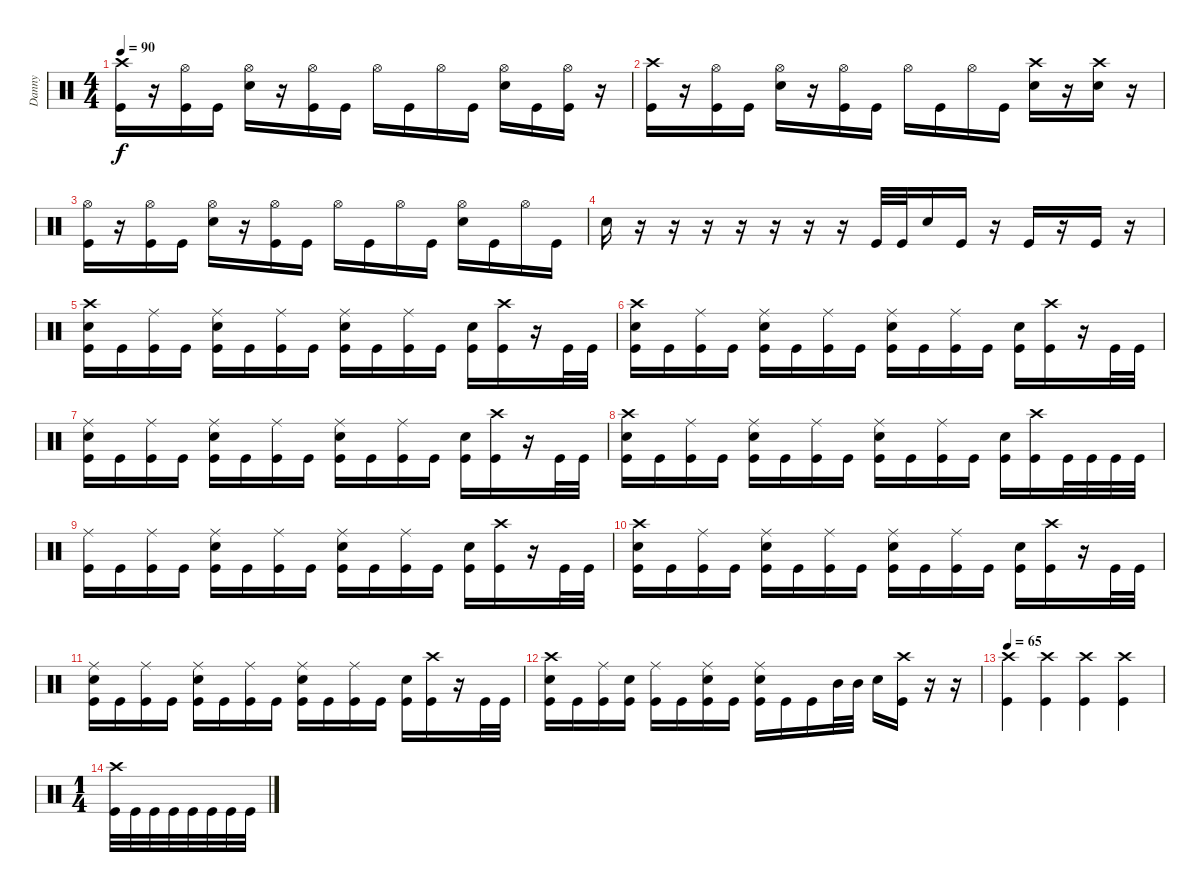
\track ("Danny" "Danny") {instrument percussion}
\staff {score}
\articulation defaults
\ts (4 4)
\tempo 90
\clef neutral
\ks c
("Crash high (hit)" "Kick (hit)").16{dy f} r.16 ("Hi-Hat (open)" "Kick (hit)").16 "Kick (hit)".16 ("Hi-Hat (open)" "Electric Snare (hit)").16 r.16 ("Hi-Hat (open)" "Kick (hit)").16 "Kick (hit)".16 "Hi-Hat (open)".16 "Kick (hit)".16 "Hi-Hat (open)".16 "Kick (hit)".16 ("Hi-Hat (open)" "Electric Snare (hit)").16 "Kick (hit)".16 ("Hi-Hat (open)" "Kick (hit)").16 r.16 |
("Crash high (hit)" "Kick (hit)").16 r.16 ("Hi-Hat (open)" "Kick (hit)").16 "Kick (hit)".16 ("Hi-Hat (open)" "Electric Snare (hit)").16 r.16 ("Hi-Hat (open)" "Kick (hit)").16 "Kick (hit)".16 "Hi-Hat (open)".16 "Kick (hit)".16 "Hi-Hat (open)".16 "Kick (hit)".16 ("Crash high (hit)" "Electric Snare (hit)").16 r.16 ("Crash high (hit)" "Electric Snare (hit)").16 r.16 |
("Hi-Hat (open)" "Kick (hit)").16 r.16 ("Hi-Hat (open)" "Kick (hit)").16 "Kick (hit)".16 ("Hi-Hat (open)" "Electric Snare (hit)").16 r.16 ("Hi-Hat (open)" "Kick (hit)").16 "Kick (hit)".16 "Hi-Hat (open)".16 "Kick (hit)".16 "Hi-Hat (open)".16 "Kick (hit)".16 ("Hi-Hat (open)" "Electric Snare (hit)").16 "Kick (hit)".16 "Hi-Hat (open)".16 "Kick (hit)".16 |
"Electric Snare (hit)".16 r.16 r.16 r.16 r.16 r.16 r.16 r.16 "Kick (hit)".32 "Kick (hit)".32 "Electric Snare (hit)".16 "Kick (hit)".16 r.16 "Kick (hit)".16 r.16 "Kick (hit)".16 r.16 |
("Crash high (hit)" "Electric Snare (hit)" "Kick (hit)").16 "Kick (hit)".16 ("Ride (middle)" "Kick (hit)").16 "Kick (hit)".16 ("Ride (middle)" "Electric Snare (hit)" "Kick (hit)").16 "Kick (hit)".16 ("Ride (middle)" "Kick (hit)").16 "Kick (hit)".16 ("Ride (middle)" "Electric Snare (hit)" "Kick (hit)").16 "Kick (hit)".16 ("Ride (middle)" "Kick (hit)").16 "Kick (hit)".16 ("Electric Snare (hit)" "Kick (hit)").16 ("Crash high (hit)" "Kick (hit)").16 r.16 "Kick (hit)".32 "Kick (hit)".32 |
("Crash high (hit)" "Electric Snare (hit)" "Kick (hit)").16 "Kick (hit)".16 ("Ride (middle)" "Kick (hit)").16 "Kick (hit)".16 ("Ride (middle)" "Electric Snare (hit)" "Kick (hit)").16 "Kick (hit)".16 ("Ride (middle)" "Kick (hit)").16 "Kick (hit)".16 ("Ride (middle)" "Electric Snare (hit)" "Kick (hit)").16 "Kick (hit)".16 ("Ride (middle)" "Kick (hit)").16 "Kick (hit)".16 ("Electric Snare (hit)" "Kick (hit)").16 ("Crash high (hit)" "Kick (hit)").16 r.16 "Kick (hit)".32 "Kick (hit)".32 |
("Ride (middle)" "Electric Snare (hit)" "Kick (hit)").16 "Kick (hit)".16 ("Ride (middle)" "Kick (hit)").16 "Kick (hit)".16 ("Ride (middle)" "Electric Snare (hit)" "Kick (hit)").16 "Kick (hit)".16 ("Ride (middle)" "Kick (hit)").16 "Kick (hit)".16 ("Ride (middle)" "Electric Snare (hit)" "Kick (hit)").16 "Kick (hit)".16 ("Ride (middle)" "Kick (hit)").16 "Kick (hit)".16 ("Electric Snare (hit)" "Kick (hit)").16 ("Crash high (hit)" "Kick (hit)").16 r.16 "Kick (hit)".32 "Kick (hit)".32 |
("Crash high (hit)" "Electric Snare (hit)" "Kick (hit)").16 "Kick (hit)".16 ("Ride (middle)" "Kick (hit)").16 "Kick (hit)".16 ("Ride (middle)" "Electric Snare (hit)" "Kick (hit)").16 "Kick (hit)".16 ("Ride (middle)" "Kick (hit)").16 "Kick (hit)".16 ("Ride (middle)" "Electric Snare (hit)" "Kick (hit)").16 "Kick (hit)".16 ("Ride (middle)" "Kick (hit)").16 "Kick (hit)".16 ("Electric Snare (hit)" "Kick (hit)").16 ("Crash high (hit)" "Kick (hit)").16 "Kick (hit)".32 "Kick (hit)".32 "Kick (hit)".32 "Kick (hit)".32 |
("Ride (middle)" "Kick (hit)").16 "Kick (hit)".16 ("Ride (middle)" "Kick (hit)").16 "Kick (hit)".16 ("Ride (middle)" "Electric Snare (hit)" "Kick (hit)").16 "Kick (hit)".16 ("Ride (middle)" "Kick (hit)").16 "Kick (hit)".16 ("Ride (middle)" "Electric Snare (hit)" "Kick (hit)").16 "Kick (hit)".16 ("Ride (middle)" "Kick (hit)").16 "Kick (hit)".16 ("Electric Snare (hit)" "Kick (hit)").16 ("Crash high (hit)" "Kick (hit)").16 r.16 "Kick (hit)".32 "Kick (hit)".32 |
("Crash high (hit)" "Electric Snare (hit)" "Kick (hit)").16 "Kick (hit)".16 ("Ride (middle)" "Kick (hit)").16 "Kick (hit)".16 ("Ride (middle)" "Electric Snare (hit)" "Kick (hit)").16 "Kick (hit)".16 ("Ride (middle)" "Kick (hit)").16 "Kick (hit)".16 ("Ride (middle)" "Electric Snare (hit)" "Kick (hit)").16 "Kick (hit)".16 ("Ride (middle)" "Kick (hit)").16 "Kick (hit)".16 ("Electric Snare (hit)" "Kick (hit)").16 ("Crash high (hit)" "Kick (hit)").16 r.16 "Kick (hit)".32 "Kick (hit)".32 |
("Ride (middle)" "Electric Snare (hit)" "Kick (hit)").16 "Kick (hit)".16 ("Ride (middle)" "Kick (hit)").16 "Kick (hit)".16 ("Ride (middle)" "Electric Snare (hit)" "Kick (hit)").16 "Kick (hit)".16 ("Ride (middle)" "Kick (hit)").16 "Kick (hit)".16 ("Ride (middle)" "Electric Snare (hit)" "Kick (hit)").16 "Kick (hit)".16 ("Ride (middle)" "Kick (hit)").16 "Kick (hit)".16 ("Electric Snare (hit)" "Kick (hit)").16 ("Crash high (hit)" "Kick (hit)").16 r.16 "Kick (hit)".32 "Kick (hit)".32 |
("Crash high (hit)" "Electric Snare (hit)" "Kick (hit)").16 "Kick (hit)".16 ("Ride (middle)" "Kick (hit)").16 ("Electric Snare (hit)" "Kick (hit)").16 ("Ride (middle)" "Kick (hit)").16 "Kick (hit)".16 ("Ride (middle)" "Electric Snare (hit)" "Kick (hit)").16 "Kick (hit)".16 ("Ride (middle)" "Electric Snare (hit)" "Kick (hit)").16 "Kick (hit)".16 "Kick (hit)".16 "Mid Tom (hit)".32 "Mid Tom (hit)".32 "Electric Snare (hit)".16 ("Crash high (hit)" "Kick (hit)").16 r.16 r.16 |
\tempo 65
("Crash high (hit)" "Kick (hit)").4 ("Crash high (hit)" "Kick (hit)").4 ("Crash high (hit)" "Kick (hit)").4 ("Crash high (hit)" "Kick (hit)").4 |
\ts (1 4)
("Crash high (hit)" "Kick (hit)").32 "Kick (hit)".32 "Kick (hit)".32 "Kick (hit)".32 "Kick (hit)".32 "Kick (hit)".32 "Kick (hit)".32 "Kick (hit)".32
